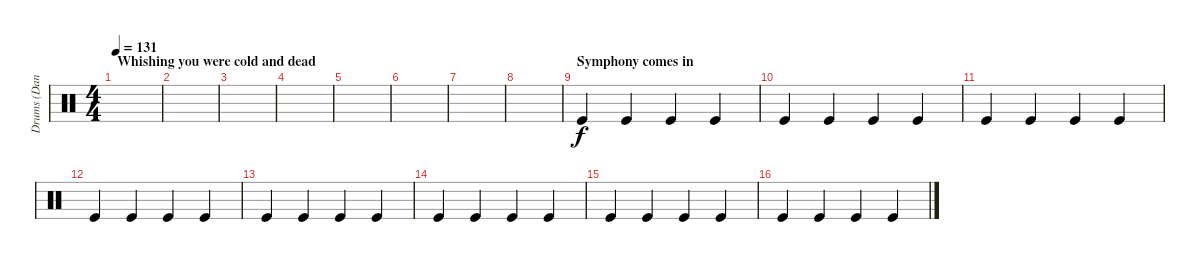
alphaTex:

\track ("Drums (Danny Young)" "Drums (Dan") {instrument percussion}
\staff {score}
\articulation defaults
\ts (4 4)
\section ("" "Whishing you were cold and dead")
\tempo 131
\clef neutral
\ks c
|
|
|
|
|
|
|
|
\section ("" "Symphony comes in")
"Kick (hit)".4 "Kick (hit)".4 "Kick (hit)".4 "Kick (hit)".4 |
"Kick (hit)".4 "Kick (hit)".4 "Kick (hit)".4 "Kick (hit)".4 |
"Kick (hit)".4 "Kick (hit)".4 "Kick (hit)".4 "Kick (hit)".4 |
"Kick (hit)".4 "Kick (hit)".4 "Kick (hit)".4 "Kick (hit)".4 |
"Kick (hit)".4 "Kick (hit)".4 "Kick (hit)".4 "Kick (hit)".4 |
"Kick (hit)".4 "Kick (hit)".4 "Kick (hit)".4 "Kick (hit)".4 |
"Kick (hit)".4 "Kick (hit)".4 "Kick (hit)".4 "Kick (hit)".4 |
"Kick (hit)".4 "Kick (hit)".4 "Kick (hit)".4 "Kick (hit)".4
